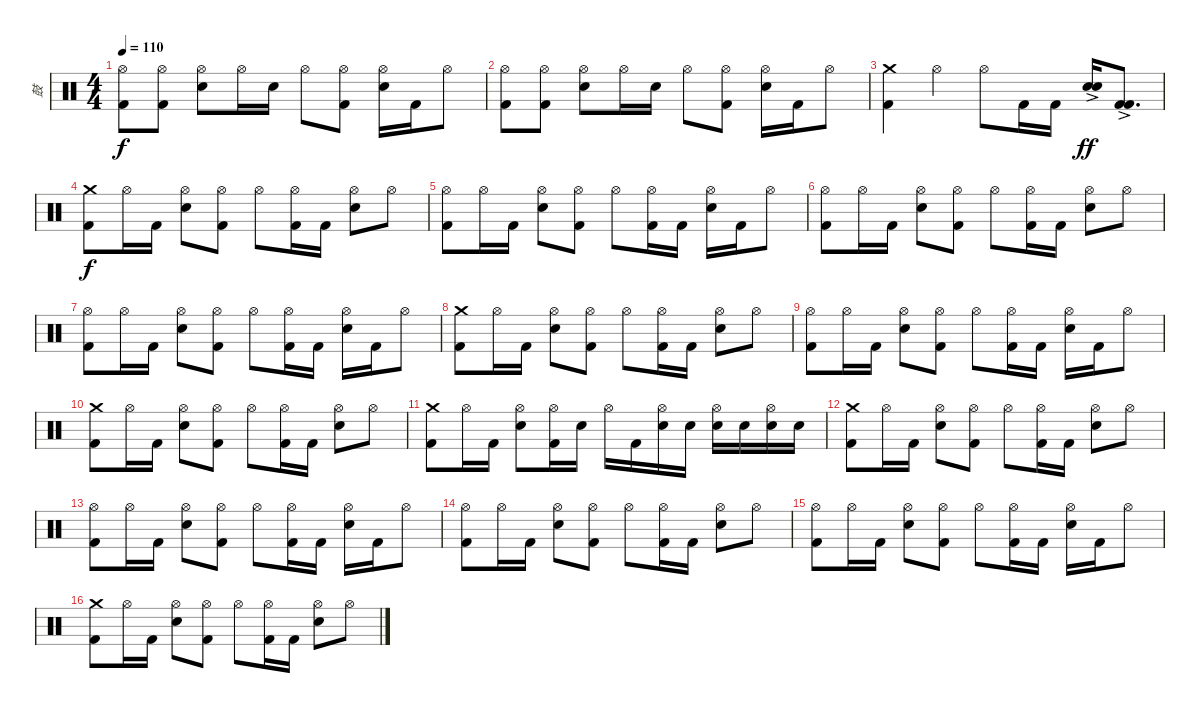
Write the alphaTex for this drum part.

\track ("鼓" "鼓") {instrument percussion}
\staff {score}
\articulation defaults
\ts (4 4)
\tempo 110
\clef neutral
\ks c
("Hi-Hat (open)" "Kick (hit) 2").8{dy f} ("Hi-Hat (open)" "Kick (hit) 2").8 ("Hi-Hat (open)" "Electric Snare (hit)").8 "Hi-Hat (open)".16 "Electric Snare (hit)".16 "Hi-Hat (open)".8 ("Hi-Hat (open)" "Kick (hit) 2").8 ("Hi-Hat (open)" "Electric Snare (hit)").16 "Kick (hit) 2".16 "Hi-Hat (open)".8 |
("Hi-Hat (open)" "Kick (hit) 2").8 ("Hi-Hat (open)" "Kick (hit) 2").8 ("Hi-Hat (open)" "Electric Snare (hit)").8 "Hi-Hat (open)".16 "Electric Snare (hit)".16 "Hi-Hat (open)".8 ("Hi-Hat (open)" "Kick (hit) 2").8 ("Hi-Hat (open)" "Electric Snare (hit)").16 "Kick (hit) 2".16 "Hi-Hat (open)".8 |
("Crash medium (hit)" "Kick (hit) 2").4 "Hi-Hat (open)".4 "Hi-Hat (open)".8 "Kick (hit) 2".16 "Kick (hit) 2".16 ("Electric Snare (hit)"{ac} "Electric Snare (hit)"{ac}).16{dy ff} ("Kick (hit) 2"{ac} "Kick (hit) 2"{ac}).8{d} |
("Crash medium (hit)" "Kick (hit) 2").8{dy f} "Hi-Hat (open)".16 "Kick (hit) 2".16 ("Hi-Hat (open)" "Electric Snare (hit)").8 ("Hi-Hat (open)" "Kick (hit) 2").8 "Hi-Hat (open)".8 ("Hi-Hat (open)" "Kick (hit) 2").16 "Kick (hit) 2".16 ("Hi-Hat (open)" "Electric Snare (hit)").8 "Hi-Hat (open)".8 |
("Hi-Hat (open)" "Kick (hit) 2").8 "Hi-Hat (open)".16 "Kick (hit) 2".16 ("Hi-Hat (open)" "Electric Snare (hit)").8 ("Hi-Hat (open)" "Kick (hit) 2").8 "Hi-Hat (open)".8 ("Hi-Hat (open)" "Kick (hit) 2").16 "Kick (hit) 2".16 ("Hi-Hat (open)" "Electric Snare (hit)").16 "Kick (hit) 2".16 "Hi-Hat (open)".8 |
("Hi-Hat (open)" "Kick (hit) 2").8 "Hi-Hat (open)".16 "Kick (hit) 2".16 ("Hi-Hat (open)" "Electric Snare (hit)").8 ("Hi-Hat (open)" "Kick (hit) 2").8 "Hi-Hat (open)".8 ("Hi-Hat (open)" "Kick (hit) 2").16 "Kick (hit) 2".16 ("Hi-Hat (open)" "Electric Snare (hit)").8 "Hi-Hat (open)".8 |
("Hi-Hat (open)" "Kick (hit) 2").8 "Hi-Hat (open)".16 "Kick (hit) 2".16 ("Hi-Hat (open)" "Electric Snare (hit)").8 ("Hi-Hat (open)" "Kick (hit) 2").8 "Hi-Hat (open)".8 ("Hi-Hat (open)" "Kick (hit) 2").16 "Kick (hit) 2".16 ("Hi-Hat (open)" "Electric Snare (hit)").16 "Kick (hit) 2".16 "Hi-Hat (open)".8 |
("Crash medium (hit)" "Kick (hit) 2").8 "Hi-Hat (open)".16 "Kick (hit) 2".16 ("Hi-Hat (open)" "Electric Snare (hit)").8 ("Hi-Hat (open)" "Kick (hit) 2").8 "Hi-Hat (open)".8 ("Hi-Hat (open)" "Kick (hit) 2").16 "Kick (hit) 2".16 ("Hi-Hat (open)" "Electric Snare (hit)").8 "Hi-Hat (open)".8 |
("Hi-Hat (open)" "Kick (hit) 2").8 "Hi-Hat (open)".16 "Kick (hit) 2".16 ("Hi-Hat (open)" "Electric Snare (hit)").8 ("Hi-Hat (open)" "Kick (hit) 2").8 "Hi-Hat (open)".8 ("Hi-Hat (open)" "Kick (hit) 2").16 "Kick (hit) 2".16 ("Hi-Hat (open)" "Electric Snare (hit)").16 "Kick (hit) 2".16 "Hi-Hat (open)".8 |
("Crash medium (hit)" "Kick (hit) 2").8 "Hi-Hat (open)".16 "Kick (hit) 2".16 ("Hi-Hat (open)" "Electric Snare (hit)").8 ("Hi-Hat (open)" "Kick (hit) 2").8 "Hi-Hat (open)".8 ("Hi-Hat (open)" "Kick (hit) 2").16 "Kick (hit) 2".16 ("Hi-Hat (open)" "Electric Snare (hit)").8 "Hi-Hat (open)".8 |
("Crash medium (hit)" "Kick (hit) 2").8 "Hi-Hat (open)".16 "Kick (hit) 2".16 ("Hi-Hat (open)" "Electric Snare (hit)").8 ("Hi-Hat (open)" "Kick (hit) 2").16 "Electric Snare (hit)".16 "Hi-Hat (open)".16 "Kick (hit) 2".16 ("Hi-Hat (open)" "Electric Snare (hit)").16 "Electric Snare (hit)".16 ("Hi-Hat (open)" "Electric Snare (hit)").16 "Electric Snare (hit)".16 ("Hi-Hat (open)" "Electric Snare (hit)").16 "Electric Snare (hit)".16 |
("Crash medium (hit)" "Kick (hit) 2").8 "Hi-Hat (open)".16 "Kick (hit) 2".16 ("Hi-Hat (open)" "Electric Snare (hit)").8 ("Hi-Hat (open)" "Kick (hit) 2").8 "Hi-Hat (open)".8 ("Hi-Hat (open)" "Kick (hit) 2").16 "Kick (hit) 2".16 ("Hi-Hat (open)" "Electric Snare (hit)").8 "Hi-Hat (open)".8 |
("Hi-Hat (open)" "Kick (hit) 2").8 "Hi-Hat (open)".16 "Kick (hit) 2".16 ("Hi-Hat (open)" "Electric Snare (hit)").8 ("Hi-Hat (open)" "Kick (hit) 2").8 "Hi-Hat (open)".8 ("Hi-Hat (open)" "Kick (hit) 2").16 "Kick (hit) 2".16 ("Hi-Hat (open)" "Electric Snare (hit)").16 "Kick (hit) 2".16 "Hi-Hat (open)".8 |
("Hi-Hat (open)" "Kick (hit) 2").8 "Hi-Hat (open)".16 "Kick (hit) 2".16 ("Hi-Hat (open)" "Electric Snare (hit)").8 ("Hi-Hat (open)" "Kick (hit) 2").8 "Hi-Hat (open)".8 ("Hi-Hat (open)" "Kick (hit) 2").16 "Kick (hit) 2".16 ("Hi-Hat (open)" "Electric Snare (hit)").8 "Hi-Hat (open)".8 |
("Hi-Hat (open)" "Kick (hit) 2").8 "Hi-Hat (open)".16 "Kick (hit) 2".16 ("Hi-Hat (open)" "Electric Snare (hit)").8 ("Hi-Hat (open)" "Kick (hit) 2").8 "Hi-Hat (open)".8 ("Hi-Hat (open)" "Kick (hit) 2").16 "Kick (hit) 2".16 ("Hi-Hat (open)" "Electric Snare (hit)").16 "Kick (hit) 2".16 "Hi-Hat (open)".8 |
("Crash medium (hit)" "Kick (hit) 2").8 "Hi-Hat (open)".16 "Kick (hit) 2".16 ("Hi-Hat (open)" "Electric Snare (hit)").8 ("Hi-Hat (open)" "Kick (hit) 2").8 "Hi-Hat (open)".8 ("Hi-Hat (open)" "Kick (hit) 2").16 "Kick (hit) 2".16 ("Hi-Hat (open)" "Electric Snare (hit)").8 "Hi-Hat (open)".8
